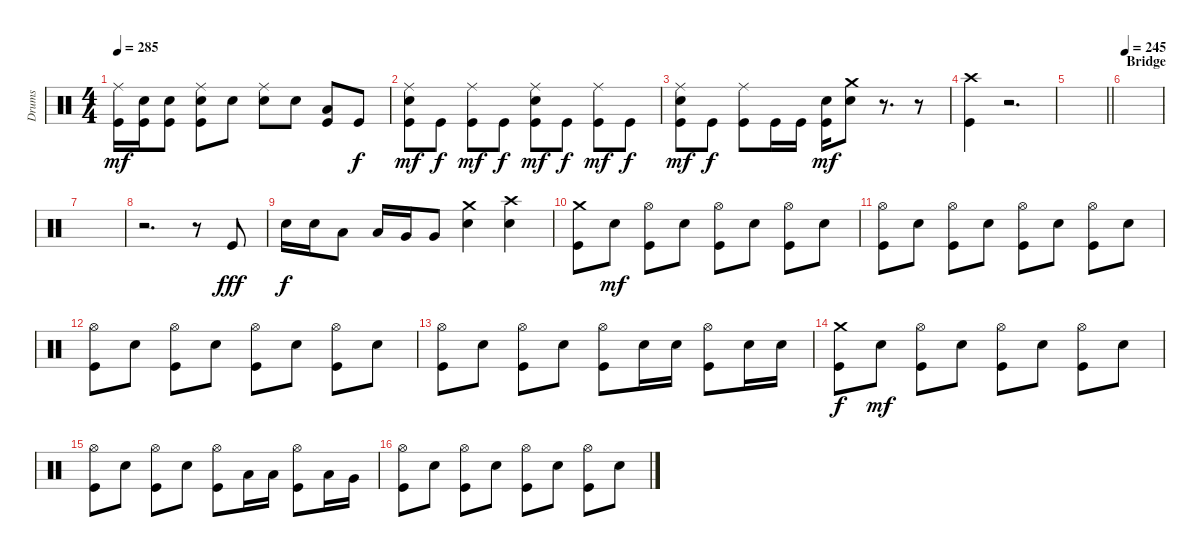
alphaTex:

\track ("Drums" "Drums") {instrument percussion}
\staff {score}
\articulation defaults
\ts (4 4)
\tempo 285
\clef neutral
\ks c
("Ride (middle)" "Kick (hit)").16{dy mf} ("Snare (hit) 2" "Kick (hit)").16 ("Snare (hit) 2" "Kick (hit)").8 ("Ride (middle)" "Snare (hit) 2" "Kick (hit)").8 "Snare (hit) 2".8 ("Ride (middle)" "Snare (hit) 2").8 "Snare (hit) 2".8 ("Low Tom (hit)" "Kick (hit)").8 "Kick (hit)".8{dy f} |
("Ride (middle)" "Snare (hit) 2" "Kick (hit)").8{dy mf} "Kick (hit)".8{dy f} ("Ride (middle)" "Kick (hit)").8{dy mf} "Kick (hit)".8{dy f} ("Ride (middle)" "Snare (hit) 2" "Kick (hit)").8{dy mf} "Kick (hit)".8{dy f} ("Ride (middle)" "Kick (hit)").8{dy mf} "Kick (hit)".8{dy f} |
("Ride (middle)" "Snare (hit) 2" "Kick (hit)").8{dy mf} "Kick (hit)".8{dy f} ("Ride (middle)" "Kick (hit)").8 "Kick (hit)".16 "Kick (hit)".16 ("Snare (hit) 2" "Kick (hit)").16{dy mf} ("Crash medium (hit)" "Snare (hit) 2").8 r.8{d} r.8 |
("Crash high (hit)" "Kick (hit)").4 r.2{d} |
\barLineRight lightlight
|
\section ("" "Bridge")
\tempo 245
|
|
r.2{d} r.8 "Kick (hit)".8{dy fff} |
"Snare (hit) 2".16{dy f} "Snare (hit) 2".16 "Low Tom (hit)".8 "Low Tom (hit)".16 "Very Low Tom (hit)".16 "Very Low Tom (hit)".8 ("Crash medium (hit)" "Snare (hit) 2").4 ("Crash high (hit)" "Snare (hit) 2").4 |
("Crash medium (hit)" "Kick (hit)").8 "Snare (hit) 2".8{dy mf} ("Hi-Hat (open)" "Kick (hit)").8 "Snare (hit) 2".8 ("Hi-Hat (open)" "Kick (hit)").8 "Snare (hit) 2".8 ("Hi-Hat (open)" "Kick (hit)").8 "Snare (hit) 2".8 |
("Hi-Hat (open)" "Kick (hit)").8 "Snare (hit) 2".8 ("Hi-Hat (open)" "Kick (hit)").8 "Snare (hit) 2".8 ("Hi-Hat (open)" "Kick (hit)").8 "Snare (hit) 2".8 ("Hi-Hat (open)" "Kick (hit)").8 "Snare (hit) 2".8 |
("Hi-Hat (open)" "Kick (hit)").8 "Snare (hit) 2".8 ("Hi-Hat (open)" "Kick (hit)").8 "Snare (hit) 2".8 ("Hi-Hat (open)" "Kick (hit)").8 "Snare (hit) 2".8 ("Hi-Hat (open)" "Kick (hit)").8 "Snare (hit) 2".8 |
("Hi-Hat (open)" "Kick (hit)").8 "Snare (hit) 2".8 ("Hi-Hat (open)" "Kick (hit)").8 "Snare (hit) 2".8 ("Hi-Hat (open)" "Kick (hit)").8 "Snare (hit) 2".16 "Snare (hit) 2".16 ("Hi-Hat (open)" "Kick (hit)").8 "Snare (hit) 2".16 "Snare (hit) 2".16 |
("Crash medium (hit)" "Kick (hit)").8{dy f} "Snare (hit) 2".8{dy mf} ("Hi-Hat (open)" "Kick (hit)").8 "Snare (hit) 2".8 ("Hi-Hat (open)" "Kick (hit)").8 "Snare (hit) 2".8 ("Hi-Hat (open)" "Kick (hit)").8 "Snare (hit) 2".8 |
("Hi-Hat (open)" "Kick (hit)").8 "Snare (hit) 2".8 ("Hi-Hat (open)" "Kick (hit)").8 "Snare (hit) 2".8 ("Hi-Hat (open)" "Kick (hit)").8 "Low Tom (hit)".16 "Low Tom (hit)".16 ("Hi-Hat (open)" "Kick (hit)").8 "Low Tom (hit)".16 "Very Low Tom (hit)".16 |
("Hi-Hat (open)" "Kick (hit)").8 "Snare (hit) 2".8 ("Hi-Hat (open)" "Kick (hit)").8 "Snare (hit) 2".8 ("Hi-Hat (open)" "Kick (hit)").8 "Snare (hit) 2".8 ("Hi-Hat (open)" "Kick (hit)").8 "Snare (hit) 2".8
